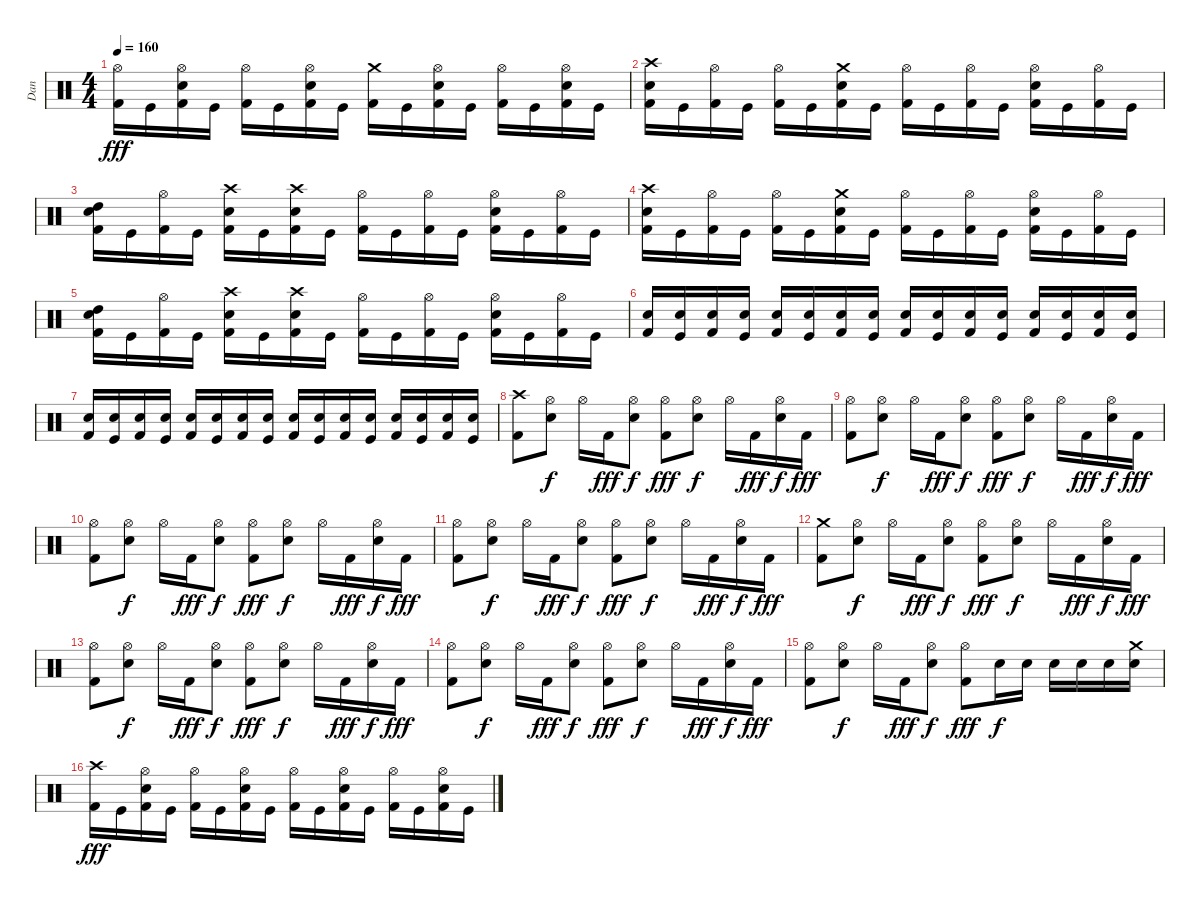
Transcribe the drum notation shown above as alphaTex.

\track ("Dan " "Dan ") {instrument percussion}
\staff {score}
\articulation defaults
\ts (4 4)
\tempo 160
\clef neutral
\ks c
("Hi-Hat (open)" "Kick (hit) 2").16{dy fff} "Kick (hit)".16 ("Hi-Hat (open)" "Electric Snare (hit)" "Kick (hit) 2").16 "Kick (hit)".16 ("Hi-Hat (open)" "Kick (hit) 2").16 "Kick (hit)".16 ("Hi-Hat (open)" "Electric Snare (hit)" "Kick (hit) 2").16 "Kick (hit)".16 ("Crash medium (hit)" "Kick (hit) 2").16 "Kick (hit)".16 ("Hi-Hat (open)" "Electric Snare (hit)" "Kick (hit) 2").16 "Kick (hit)".16 ("Hi-Hat (open)" "Kick (hit) 2").16 "Kick (hit)".16 ("Hi-Hat (open)" "Electric Snare (hit)" "Kick (hit) 2").16 "Kick (hit)".16 |
("Crash high (hit)" "Electric Snare (hit)" "Kick (hit) 2").16 "Kick (hit)".16 ("Hi-Hat (open)" "Kick (hit) 2").16 "Kick (hit)".16 ("Hi-Hat (open)" "Kick (hit) 2").16 "Kick (hit)".16 ("Crash medium (hit)" "Electric Snare (hit)" "Kick (hit) 2").16 "Kick (hit)".16 ("Hi-Hat (open)" "Kick (hit) 2").16 "Kick (hit)".16 ("Hi-Hat (open)" "Kick (hit) 2").16 "Kick (hit)".16 ("Hi-Hat (open)" "Electric Snare (hit)" "Kick (hit) 2").16 "Kick (hit)".16 ("Hi-Hat (open)" "Kick (hit) 2").16 "Kick (hit)".16 |
("High Tom (hit)" "Electric Snare (hit)" "Kick (hit) 2").16 "Kick (hit)".16 ("Hi-Hat (open)" "Kick (hit) 2").16 "Kick (hit)".16 ("Crash high (hit)" "Electric Snare (hit)" "Kick (hit) 2").16 "Kick (hit)".16 ("Crash high (hit)" "Electric Snare (hit)" "Kick (hit) 2").16 "Kick (hit)".16 ("Hi-Hat (open)" "Kick (hit) 2").16 "Kick (hit)".16 ("Hi-Hat (open)" "Kick (hit) 2").16 "Kick (hit)".16 ("Hi-Hat (open)" "Electric Snare (hit)" "Kick (hit) 2").16 "Kick (hit)".16 ("Hi-Hat (open)" "Kick (hit) 2").16 "Kick (hit)".16 |
("Crash high (hit)" "Electric Snare (hit)" "Kick (hit) 2").16 "Kick (hit)".16 ("Hi-Hat (open)" "Kick (hit) 2").16 "Kick (hit)".16 ("Hi-Hat (open)" "Kick (hit) 2").16 "Kick (hit)".16 ("Crash medium (hit)" "Electric Snare (hit)" "Kick (hit) 2").16 "Kick (hit)".16 ("Hi-Hat (open)" "Kick (hit) 2").16 "Kick (hit)".16 ("Hi-Hat (open)" "Kick (hit) 2").16 "Kick (hit)".16 ("Hi-Hat (open)" "Electric Snare (hit)" "Kick (hit) 2").16 "Kick (hit)".16 ("Hi-Hat (open)" "Kick (hit) 2").16 "Kick (hit)".16 |
("High Tom (hit)" "Electric Snare (hit)" "Kick (hit) 2").16 "Kick (hit)".16 ("Hi-Hat (open)" "Kick (hit) 2").16 "Kick (hit)".16 ("Crash high (hit)" "Electric Snare (hit)" "Kick (hit) 2").16 "Kick (hit)".16 ("Crash high (hit)" "Electric Snare (hit)" "Kick (hit) 2").16 "Kick (hit)".16 ("Hi-Hat (open)" "Kick (hit) 2").16 "Kick (hit)".16 ("Hi-Hat (open)" "Kick (hit) 2").16 "Kick (hit)".16 ("Hi-Hat (open)" "Electric Snare (hit)" "Kick (hit) 2").16 "Kick (hit)".16 ("Hi-Hat (open)" "Kick (hit) 2").16 "Kick (hit)".16 |
("Electric Snare (hit)" "Kick (hit) 2").16 ("Electric Snare (hit)" "Kick (hit)").16 ("Electric Snare (hit)" "Kick (hit) 2").16 ("Electric Snare (hit)" "Kick (hit)").16 ("Electric Snare (hit)" "Kick (hit) 2").16 ("Electric Snare (hit)" "Kick (hit)").16 ("Electric Snare (hit)" "Kick (hit) 2").16 ("Electric Snare (hit)" "Kick (hit)").16 ("Electric Snare (hit)" "Kick (hit) 2").16 ("Electric Snare (hit)" "Kick (hit)").16 ("Electric Snare (hit)" "Kick (hit) 2").16 ("Electric Snare (hit)" "Kick (hit)").16 ("Electric Snare (hit)" "Kick (hit) 2").16 ("Electric Snare (hit)" "Kick (hit)").16 ("Electric Snare (hit)" "Kick (hit) 2").16 ("Electric Snare (hit)" "Kick (hit)").16 |
("Electric Snare (hit)" "Kick (hit) 2").16 ("Electric Snare (hit)" "Kick (hit)").16 ("Electric Snare (hit)" "Kick (hit) 2").16 ("Electric Snare (hit)" "Kick (hit)").16 ("Electric Snare (hit)" "Kick (hit) 2").16 ("Electric Snare (hit)" "Kick (hit)").16 ("Electric Snare (hit)" "Kick (hit) 2").16 ("Electric Snare (hit)" "Kick (hit)").16 ("Electric Snare (hit)" "Kick (hit) 2").16 ("Electric Snare (hit)" "Kick (hit)").16 ("Electric Snare (hit)" "Kick (hit) 2").16 ("Electric Snare (hit)" "Kick (hit)").16 ("Electric Snare (hit)" "Kick (hit) 2").16 ("Electric Snare (hit)" "Kick (hit)").16 ("Electric Snare (hit)" "Kick (hit) 2").16 ("Electric Snare (hit)" "Kick (hit)").16 |
("Crash high (hit)" "Kick (hit) 2").8 ("Hi-Hat (open)" "Electric Snare (hit)").8{dy f} "Hi-Hat (open)".16 "Kick (hit) 2".16{dy fff} ("Hi-Hat (open)" "Electric Snare (hit)").8{dy f} ("Hi-Hat (open)" "Kick (hit) 2").8{dy fff} ("Hi-Hat (open)" "Electric Snare (hit)").8{dy f} "Hi-Hat (open)".16 "Kick (hit) 2".16{dy fff} ("Hi-Hat (open)" "Electric Snare (hit)").16{dy f} "Kick (hit) 2".16{dy fff} |
("Hi-Hat (open)" "Kick (hit) 2").8 ("Hi-Hat (open)" "Electric Snare (hit)").8{dy f} "Hi-Hat (open)".16 "Kick (hit) 2".16{dy fff} ("Hi-Hat (open)" "Electric Snare (hit)").8{dy f} ("Hi-Hat (open)" "Kick (hit) 2").8{dy fff} ("Hi-Hat (open)" "Electric Snare (hit)").8{dy f} "Hi-Hat (open)".16 "Kick (hit) 2".16{dy fff} ("Hi-Hat (open)" "Electric Snare (hit)").16{dy f} "Kick (hit) 2".16{dy fff} |
("Hi-Hat (open)" "Kick (hit) 2").8 ("Hi-Hat (open)" "Electric Snare (hit)").8{dy f} "Hi-Hat (open)".16 "Kick (hit) 2".16{dy fff} ("Hi-Hat (open)" "Electric Snare (hit)").8{dy f} ("Hi-Hat (open)" "Kick (hit) 2").8{dy fff} ("Hi-Hat (open)" "Electric Snare (hit)").8{dy f} "Hi-Hat (open)".16 "Kick (hit) 2".16{dy fff} ("Hi-Hat (open)" "Electric Snare (hit)").16{dy f} "Kick (hit) 2".16{dy fff} |
("Hi-Hat (open)" "Kick (hit) 2").8 ("Hi-Hat (open)" "Electric Snare (hit)").8{dy f} "Hi-Hat (open)".16 "Kick (hit) 2".16{dy fff} ("Hi-Hat (open)" "Electric Snare (hit)").8{dy f} ("Hi-Hat (open)" "Kick (hit) 2").8{dy fff} ("Hi-Hat (open)" "Electric Snare (hit)").8{dy f} "Hi-Hat (open)".16 "Kick (hit) 2".16{dy fff} ("Hi-Hat (open)" "Electric Snare (hit)").16{dy f} "Kick (hit) 2".16{dy fff} |
("Crash medium (hit)" "Kick (hit) 2").8 ("Hi-Hat (open)" "Electric Snare (hit)").8{dy f} "Hi-Hat (open)".16 "Kick (hit) 2".16{dy fff} ("Hi-Hat (open)" "Electric Snare (hit)").8{dy f} ("Hi-Hat (open)" "Kick (hit) 2").8{dy fff} ("Hi-Hat (open)" "Electric Snare (hit)").8{dy f} "Hi-Hat (open)".16 "Kick (hit) 2".16{dy fff} ("Hi-Hat (open)" "Electric Snare (hit)").16{dy f} "Kick (hit) 2".16{dy fff} |
("Hi-Hat (open)" "Kick (hit) 2").8 ("Hi-Hat (open)" "Electric Snare (hit)").8{dy f} "Hi-Hat (open)".16 "Kick (hit) 2".16{dy fff} ("Hi-Hat (open)" "Electric Snare (hit)").8{dy f} ("Hi-Hat (open)" "Kick (hit) 2").8{dy fff} ("Hi-Hat (open)" "Electric Snare (hit)").8{dy f} "Hi-Hat (open)".16 "Kick (hit) 2".16{dy fff} ("Hi-Hat (open)" "Electric Snare (hit)").16{dy f} "Kick (hit) 2".16{dy fff} |
("Hi-Hat (open)" "Kick (hit) 2").8 ("Hi-Hat (open)" "Electric Snare (hit)").8{dy f} "Hi-Hat (open)".16 "Kick (hit) 2".16{dy fff} ("Hi-Hat (open)" "Electric Snare (hit)").8{dy f} ("Hi-Hat (open)" "Kick (hit) 2").8{dy fff} ("Hi-Hat (open)" "Electric Snare (hit)").8{dy f} "Hi-Hat (open)".16 "Kick (hit) 2".16{dy fff} ("Hi-Hat (open)" "Electric Snare (hit)").16{dy f} "Kick (hit) 2".16{dy fff} |
("Hi-Hat (open)" "Kick (hit) 2").8 ("Hi-Hat (open)" "Electric Snare (hit)").8{dy f} "Hi-Hat (open)".16 "Kick (hit) 2".16{dy fff} ("Hi-Hat (open)" "Electric Snare (hit)").8{dy f} ("Hi-Hat (open)" "Kick (hit) 2").8{dy fff} "Electric Snare (hit)".16{dy f} "Electric Snare (hit)".16 "Electric Snare (hit)".16 "Electric Snare (hit)".16 "Electric Snare (hit)".16 ("Crash medium (hit)" "Electric Snare (hit)").16 |
("Crash high (hit)" "Kick (hit) 2").16{dy fff} "Kick (hit)".16 ("Hi-Hat (open)" "Electric Snare (hit)" "Kick (hit) 2").16 "Kick (hit)".16 ("Hi-Hat (open)" "Kick (hit) 2").16 "Kick (hit)".16 ("Hi-Hat (open)" "Electric Snare (hit)" "Kick (hit) 2").16 "Kick (hit)".16 ("Hi-Hat (open)" "Kick (hit) 2").16 "Kick (hit)".16 ("Hi-Hat (open)" "Electric Snare (hit)" "Kick (hit) 2").16 "Kick (hit)".16 ("Hi-Hat (open)" "Kick (hit) 2").16 "Kick (hit)".16 ("Hi-Hat (open)" "Electric Snare (hit)" "Kick (hit) 2").16 "Kick (hit)".16
